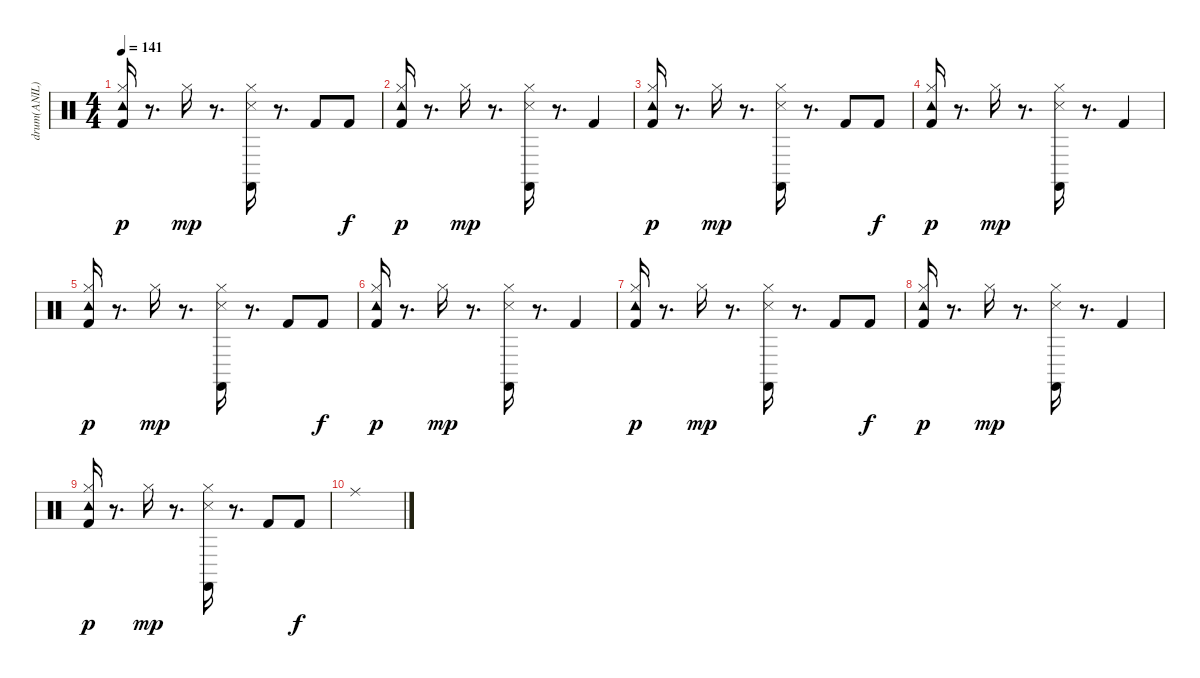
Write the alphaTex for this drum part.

\track ("drum(ANIL)" "drum(ANIL)") {instrument percussion}
\staff {score}
\articulation defaults
\ts (4 4)
\tempo 141
\clef neutral
\ks c
("Kick (hit) 2" "Hi-Hat (closed)" "Tambourine (hit)").16{dy p} r.8{d} "Hi-Hat (closed)".16{dy mp} r.8{d} ("Castanets (hit)" "Snare (side stick) 3" "Hi-Hat (closed)").16 r.8{d} "Kick (hit) 2".8 "Kick (hit) 2".8{dy f} |
("Kick (hit) 2" "Hi-Hat (closed)" "Tambourine (hit)").16{dy p} r.8{d} "Hi-Hat (closed)".16{dy mp} r.8{d} ("Castanets (hit)" "Snare (side stick) 3" "Hi-Hat (closed)").16 r.8{d} "Kick (hit) 2".4 |
("Kick (hit) 2" "Hi-Hat (closed)" "Tambourine (hit)").16{dy p} r.8{d} "Hi-Hat (closed)".16{dy mp} r.8{d} ("Castanets (hit)" "Snare (side stick) 3" "Hi-Hat (closed)").16 r.8{d} "Kick (hit) 2".8 "Kick (hit) 2".8{dy f} |
("Kick (hit) 2" "Hi-Hat (closed)" "Tambourine (hit)").16{dy p} r.8{d} "Hi-Hat (closed)".16{dy mp} r.8{d} ("Castanets (hit)" "Snare (side stick) 3" "Hi-Hat (closed)").16 r.8{d} "Kick (hit) 2".4 |
("Kick (hit) 2" "Hi-Hat (closed)" "Tambourine (hit)").16{dy p} r.8{d} "Hi-Hat (closed)".16{dy mp} r.8{d} ("Castanets (hit)" "Snare (side stick) 3" "Hi-Hat (closed)").16 r.8{d} "Kick (hit) 2".8 "Kick (hit) 2".8{dy f} |
("Kick (hit) 2" "Hi-Hat (closed)" "Tambourine (hit)").16{dy p} r.8{d} "Hi-Hat (closed)".16{dy mp} r.8{d} ("Castanets (hit)" "Snare (side stick) 3" "Hi-Hat (closed)").16 r.8{d} "Kick (hit) 2".4 |
("Kick (hit) 2" "Hi-Hat (closed)" "Tambourine (hit)").16{dy p} r.8{d} "Hi-Hat (closed)".16{dy mp} r.8{d} ("Castanets (hit)" "Snare (side stick) 3" "Hi-Hat (closed)").16 r.8{d} "Kick (hit) 2".8 "Kick (hit) 2".8{dy f} |
("Kick (hit) 2" "Hi-Hat (closed)" "Tambourine (hit)").16{dy p} r.8{d} "Hi-Hat (closed)".16{dy mp} r.8{d} ("Castanets (hit)" "Snare (side stick) 3" "Hi-Hat (closed)").16 r.8{d} "Kick (hit) 2".4 |
("Kick (hit) 2" "Hi-Hat (closed)" "Tambourine (hit)").16{dy p} r.8{d} "Hi-Hat (closed)".16{dy mp} r.8{d} ("Castanets (hit)" "Snare (side stick) 3" "Hi-Hat (closed)").16 r.8{d} "Kick (hit) 2".8 "Kick (hit) 2".8{dy f} |
"Ride (middle)".1
